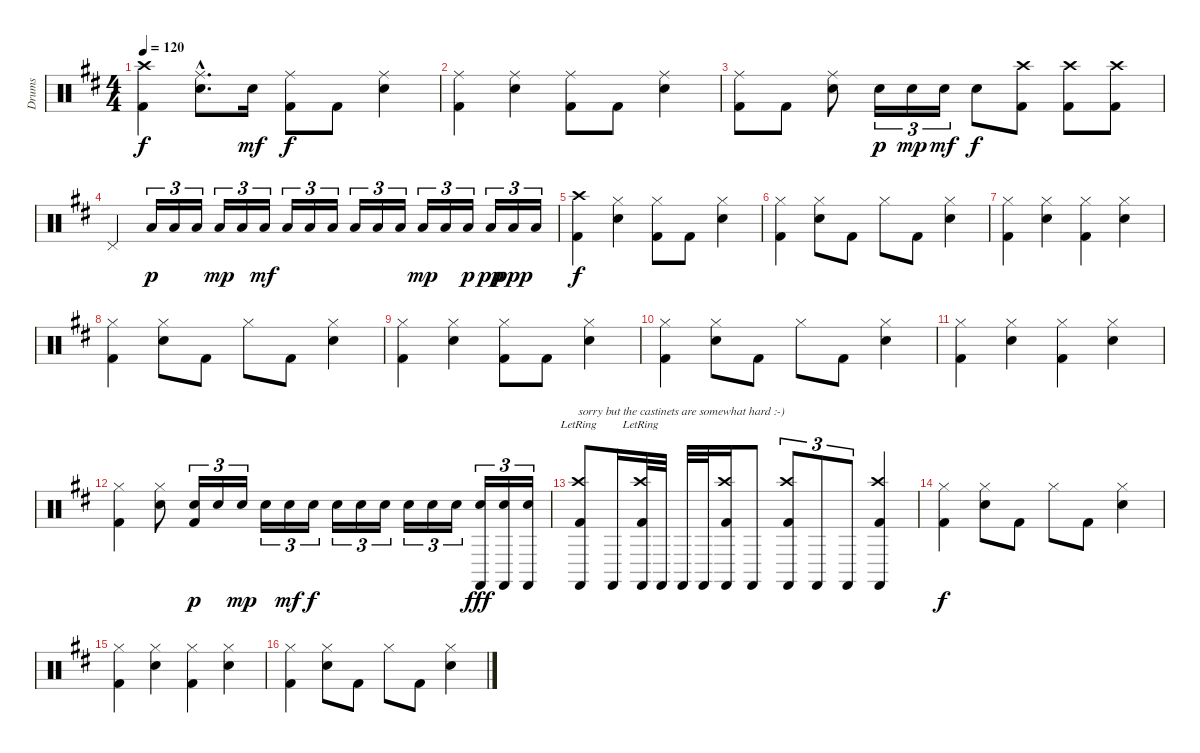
\track ("Drums" "Drums") {instrument percussion}
\staff {score}
\articulation defaults
\ts (4 4)
\tempo 120
\clef neutral
\ks bminor
("Crash high (hit)" "Kick (hit) 2").4{dy f} ("Ride (middle)"{hac} "Electric Snare (hit)"{hac}).8{d} "Electric Snare (hit)".16{dy mf} ("Ride (middle)" "Kick (hit) 2").8{dy f} "Kick (hit) 2".8 ("Ride (middle)" "Electric Snare (hit)").4 |
("Ride (middle)" "Kick (hit) 2").4 ("Ride (middle)" "Electric Snare (hit)").4 ("Ride (middle)" "Kick (hit) 2").8 "Kick (hit) 2".8 ("Ride (middle)" "Electric Snare (hit)").4 |
("Ride (middle)" "Kick (hit) 2").8 "Kick (hit) 2".8 ("Ride (middle)" "Electric Snare (hit)").8 "Electric Snare (hit)".16{tu (3 2) dy p} "Electric Snare (hit)".16{tu (3 2) dy mp} "Electric Snare (hit)".16{tu (3 2) dy mf} "Electric Snare (hit)".8{dy f} ("Crash high (hit)" "Kick (hit) 2").8 ("Crash high (hit)" "Kick (hit) 2").8 ("Crash high (hit)" "Kick (hit) 2").8 |
"Pedal Hi-Hat (hit)".4 "Low Tom (hit)".16{tu (3 2) dy p} "Low Tom (hit)".16{tu (3 2)} "Low Tom (hit)".16{tu (3 2)} "Low Tom (hit)".16{tu (3 2) dy mp} "Low Tom (hit)".16{tu (3 2)} "Low Tom (hit)".16{tu (3 2) dy mf} "Low Tom (hit)".16{tu (3 2)} "Low Tom (hit)".16{tu (3 2)} "Low Tom (hit)".16{tu (3 2)} "Low Tom (hit)".16{tu (3 2)} "Low Tom (hit)".16{tu (3 2)} "Low Tom (hit)".16{tu (3 2)} "Low Tom (hit)".16{tu (3 2) dy mp} "Low Tom (hit)".16{tu (3 2)} "Low Tom (hit)".16{tu (3 2) dy p} "Low Tom (hit)".16{tu (3 2) dy pp} "Low Tom (hit)".16{tu (3 2) dy ppp} "Low Tom (hit)".16{tu (3 2)} |
("Crash high (hit)" "Kick (hit) 2").4{dy f} ("Hi-Hat (closed)" "Electric Snare (hit)").4 ("Hi-Hat (closed)" "Kick (hit) 2").8 "Kick (hit) 2".8 ("Hi-Hat (closed)" "Electric Snare (hit)").4 |
("Hi-Hat (closed)" "Kick (hit) 2").4 ("Hi-Hat (closed)" "Electric Snare (hit)").8 "Kick (hit) 2".8 "Hi-Hat (closed)".8 "Kick (hit) 2".8 ("Hi-Hat (closed)" "Electric Snare (hit)").4 |
("Hi-Hat (closed)" "Kick (hit) 2").4 ("Hi-Hat (closed)" "Electric Snare (hit)").4 ("Hi-Hat (closed)" "Kick (hit) 2").4 ("Hi-Hat (closed)" "Electric Snare (hit)").4 |
("Hi-Hat (closed)" "Kick (hit) 2").4 ("Hi-Hat (closed)" "Electric Snare (hit)").8 "Kick (hit) 2".8 "Hi-Hat (closed)".8 "Kick (hit) 2".8 ("Hi-Hat (closed)" "Electric Snare (hit)").4 |
("Hi-Hat (closed)" "Kick (hit) 2").4 ("Hi-Hat (closed)" "Electric Snare (hit)").4 ("Hi-Hat (closed)" "Kick (hit) 2").8 "Kick (hit) 2".8 ("Hi-Hat (closed)" "Electric Snare (hit)").4 |
("Hi-Hat (closed)" "Kick (hit) 2").4 ("Hi-Hat (closed)" "Electric Snare (hit)").8 "Kick (hit) 2".8 "Hi-Hat (closed)".8 "Kick (hit) 2".8 ("Hi-Hat (closed)" "Electric Snare (hit)").4 |
("Hi-Hat (closed)" "Kick (hit) 2").4 ("Hi-Hat (closed)" "Electric Snare (hit)").4 ("Hi-Hat (closed)" "Kick (hit) 2").4 ("Hi-Hat (closed)" "Electric Snare (hit)").4 |
("Hi-Hat (closed)" "Kick (hit) 2").4 ("Hi-Hat (closed)" "Electric Snare (hit)").8 ("Electric Snare (hit)" "Kick (hit) 2").16{tu (3 2) dy p} "Electric Snare (hit)".16{tu (3 2)} "Electric Snare (hit)".16{tu (3 2) dy mp} "Electric Snare (hit)".16{tu (3 2)} "Electric Snare (hit)".16{tu (3 2) dy mf} "Electric Snare (hit)".16{tu (3 2) dy f} "Electric Snare (hit)".16{tu (3 2)} "Electric Snare (hit)".16{tu (3 2)} "Electric Snare (hit)".16{tu (3 2)} "Electric Snare (hit)".16{tu (3 2)} "Electric Snare (hit)".16{tu (3 2)} "Electric Snare (hit)".16{tu (3 2)} ("Castanets (hit)" "Electric Snare (hit)").16{tu (3 2) dy fff} ("Castanets (hit)" "Electric Snare (hit)").16{tu (3 2)} ("Castanets (hit)" "Electric Snare (hit)").16{tu (3 2)} |
("Crash high (hit)"{lr} "Castanets (hit)" "Kick (hit) 2"{lr}).8{txt "sorry but the castinets are somewhat hard :-)"} "Castanets (hit)".16 ("Crash high (hit)"{lr} "Castanets (hit)" "Kick (hit) 2"{lr}).32 "Castanets (hit)".32 "Castanets (hit)".32 "Castanets (hit)".32 ("Crash high (hit)" "Castanets (hit)" "Kick (hit) 2").16 "Castanets (hit)".8 ("Crash high (hit)" "Castanets (hit)" "Kick (hit) 2").8{tu (3 2)} "Castanets (hit)".8{tu (3 2)} "Castanets (hit)".8{tu (3 2)} ("Crash high (hit)" "Castanets (hit)" "Kick (hit) 2").4 |
("Hi-Hat (closed)" "Kick (hit) 2").4{dy f} ("Hi-Hat (closed)" "Electric Snare (hit)").8 "Kick (hit) 2".8 "Hi-Hat (closed)".8 "Kick (hit) 2".8 ("Hi-Hat (closed)" "Electric Snare (hit)").4 |
("Hi-Hat (closed)" "Kick (hit) 2").4 ("Hi-Hat (closed)" "Electric Snare (hit)").4 ("Hi-Hat (closed)" "Kick (hit) 2").4 ("Hi-Hat (closed)" "Electric Snare (hit)").4 |
("Hi-Hat (closed)" "Kick (hit) 2").4 ("Hi-Hat (closed)" "Electric Snare (hit)").8 "Kick (hit) 2".8 "Hi-Hat (closed)".8 "Kick (hit) 2".8 ("Hi-Hat (closed)" "Electric Snare (hit)").4
